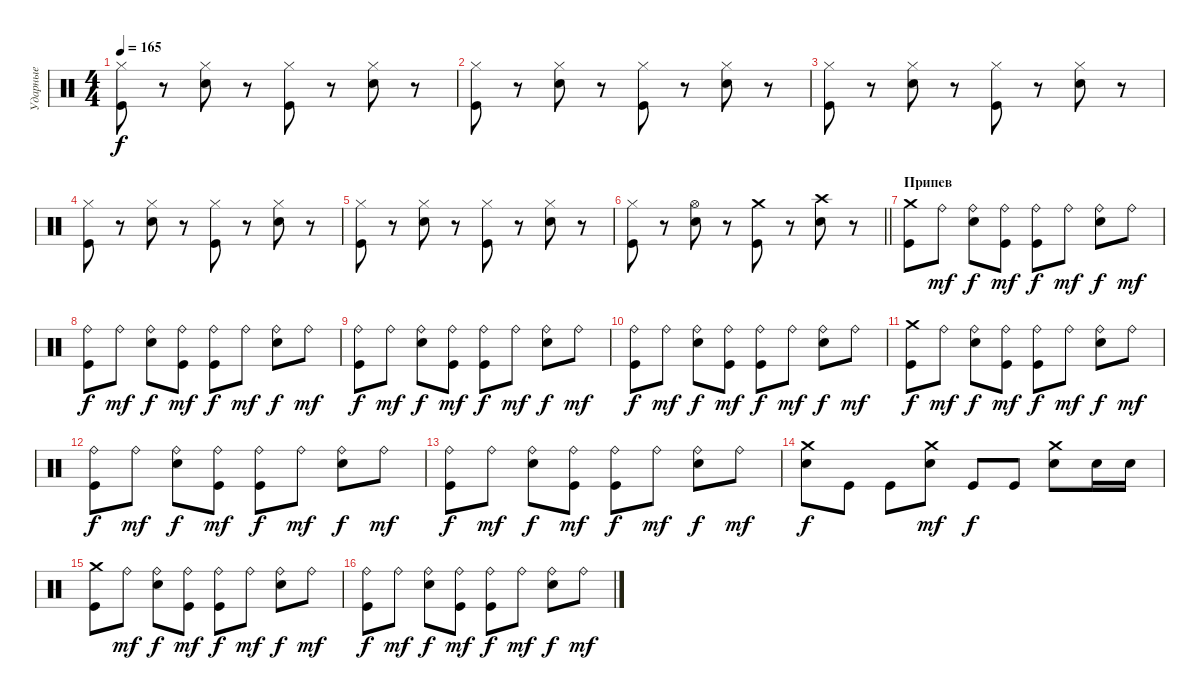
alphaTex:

\track ("Ударные" "Ударные") {instrument percussion}
\staff {score}
\articulation defaults
\ts (4 4)
\tempo 165
\clef neutral
\ks c
("Hi-Hat (closed)" "Kick (hit)").8{dy f} r.8 ("Hi-Hat (closed)" "Electric Snare (hit)").8 r.8 ("Hi-Hat (closed)" "Kick (hit)").8 r.8 ("Hi-Hat (closed)" "Electric Snare (hit)").8 r.8 |
("Hi-Hat (closed)" "Kick (hit)").8 r.8 ("Hi-Hat (closed)" "Electric Snare (hit)").8 r.8 ("Hi-Hat (closed)" "Kick (hit)").8 r.8 ("Hi-Hat (closed)" "Electric Snare (hit)").8 r.8 |
("Hi-Hat (closed)" "Kick (hit)").8 r.8 ("Hi-Hat (closed)" "Electric Snare (hit)").8 r.8 ("Hi-Hat (closed)" "Kick (hit)").8 r.8 ("Hi-Hat (closed)" "Electric Snare (hit)").8 r.8 |
("Hi-Hat (closed)" "Kick (hit)").8 r.8 ("Hi-Hat (closed)" "Electric Snare (hit)").8 r.8 ("Hi-Hat (closed)" "Kick (hit)").8 r.8 ("Hi-Hat (closed)" "Electric Snare (hit)").8 r.8 |
("Hi-Hat (closed)" "Kick (hit)").8 r.8 ("Hi-Hat (closed)" "Electric Snare (hit)").8 r.8 ("Hi-Hat (closed)" "Kick (hit)").8 r.8 ("Hi-Hat (closed)" "Electric Snare (hit)").8 r.8 |
\barLineRight lightlight
("Hi-Hat (closed)" "Kick (hit)").8 r.8 ("Hi-Hat (open)" "Electric Snare (hit)").8 r.8 ("Crash medium (hit)" "Kick (hit)").8 r.8 ("Crash high (hit)" "Electric Snare (hit)").8 r.8 |
\section ("" "Припев")
("Crash medium (hit)" "Kick (hit)").8 "Ride (bell)".8{dy mf} ("Ride (bell)" "Electric Snare (hit)").8{dy f} ("Ride (bell)" "Kick (hit)").8{dy mf} ("Ride (bell)" "Kick (hit)").8{dy f} "Ride (bell)".8{dy mf} ("Ride (bell)" "Electric Snare (hit)").8{dy f} "Ride (bell)".8{dy mf} |
("Ride (bell)" "Kick (hit)").8{dy f} "Ride (bell)".8{dy mf} ("Ride (bell)" "Electric Snare (hit)").8{dy f} ("Ride (bell)" "Kick (hit)").8{dy mf} ("Ride (bell)" "Kick (hit)").8{dy f} "Ride (bell)".8{dy mf} ("Ride (bell)" "Electric Snare (hit)").8{dy f} "Ride (bell)".8{dy mf} |
("Ride (bell)" "Kick (hit)").8{dy f} "Ride (bell)".8{dy mf} ("Ride (bell)" "Electric Snare (hit)").8{dy f} ("Ride (bell)" "Kick (hit)").8{dy mf} ("Ride (bell)" "Kick (hit)").8{dy f} "Ride (bell)".8{dy mf} ("Ride (bell)" "Electric Snare (hit)").8{dy f} "Ride (bell)".8{dy mf} |
("Ride (bell)" "Kick (hit)").8{dy f} "Ride (bell)".8{dy mf} ("Ride (bell)" "Electric Snare (hit)").8{dy f} ("Ride (bell)" "Kick (hit)").8{dy mf} ("Ride (bell)" "Kick (hit)").8{dy f} "Ride (bell)".8{dy mf} ("Ride (bell)" "Electric Snare (hit)").8{dy f} "Ride (bell)".8{dy mf} |
("Crash medium (hit)" "Kick (hit)").8{dy f} "Ride (bell)".8{dy mf} ("Ride (bell)" "Electric Snare (hit)").8{dy f} ("Ride (bell)" "Kick (hit)").8{dy mf} ("Ride (bell)" "Kick (hit)").8{dy f} "Ride (bell)".8{dy mf} ("Ride (bell)" "Electric Snare (hit)").8{dy f} "Ride (bell)".8{dy mf} |
("Ride (bell)" "Kick (hit)").8{dy f} "Ride (bell)".8{dy mf} ("Ride (bell)" "Electric Snare (hit)").8{dy f} ("Ride (bell)" "Kick (hit)").8{dy mf} ("Ride (bell)" "Kick (hit)").8{dy f} "Ride (bell)".8{dy mf} ("Ride (bell)" "Electric Snare (hit)").8{dy f} "Ride (bell)".8{dy mf} |
("Ride (bell)" "Kick (hit)").8{dy f} "Ride (bell)".8{dy mf} ("Ride (bell)" "Electric Snare (hit)").8{dy f} ("Ride (bell)" "Kick (hit)").8{dy mf} ("Ride (bell)" "Kick (hit)").8{dy f} "Ride (bell)".8{dy mf} ("Ride (bell)" "Electric Snare (hit)").8{dy f} "Ride (bell)".8{dy mf} |
("Crash medium (hit)" "Electric Snare (hit)").8{dy f} "Kick (hit)".8 "Kick (hit)".8 ("Crash medium (hit)" "Electric Snare (hit)").8{dy mf} "Kick (hit)".8{dy f} "Kick (hit)".8 ("Crash medium (hit)" "Electric Snare (hit)").8 "Electric Snare (hit)".16 "Electric Snare (hit)".16 |
("Crash medium (hit)" "Kick (hit)").8 "Ride (bell)".8{dy mf} ("Ride (bell)" "Electric Snare (hit)").8{dy f} ("Ride (bell)" "Kick (hit)").8{dy mf} ("Ride (bell)" "Kick (hit)").8{dy f} "Ride (bell)".8{dy mf} ("Ride (bell)" "Electric Snare (hit)").8{dy f} "Ride (bell)".8{dy mf} |
("Ride (bell)" "Kick (hit)").8{dy f} "Ride (bell)".8{dy mf} ("Ride (bell)" "Electric Snare (hit)").8{dy f} ("Ride (bell)" "Kick (hit)").8{dy mf} ("Ride (bell)" "Kick (hit)").8{dy f} "Ride (bell)".8{dy mf} ("Ride (bell)" "Electric Snare (hit)").8{dy f} "Ride (bell)".8{dy mf}
